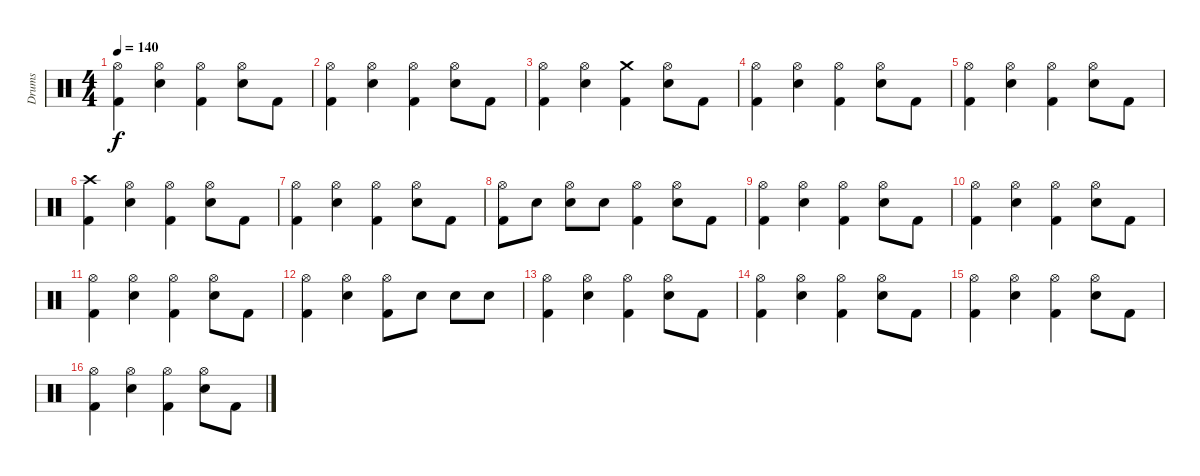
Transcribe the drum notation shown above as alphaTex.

\track ("Drums" "Drums") {instrument percussion}
\staff {score}
\articulation defaults
\ts (4 4)
\tempo 140
\clef neutral
\ks c
("Hi-Hat (open)" "Kick (hit) 2").4{dy f} ("Hi-Hat (open)" "Electric Snare (hit)").4 ("Hi-Hat (open)" "Kick (hit) 2").4 ("Hi-Hat (open)" "Electric Snare (hit)").8 "Kick (hit) 2".8 |
("Hi-Hat (open)" "Kick (hit) 2").4 ("Hi-Hat (open)" "Electric Snare (hit)").4 ("Hi-Hat (open)" "Kick (hit) 2").4 ("Hi-Hat (open)" "Electric Snare (hit)").8 "Kick (hit) 2".8 |
("Hi-Hat (open)" "Kick (hit) 2").4 ("Hi-Hat (open)" "Electric Snare (hit)").4 ("Crash medium (hit)" "Kick (hit) 2").4 ("Hi-Hat (open)" "Electric Snare (hit)").8 "Kick (hit) 2".8 |
("Hi-Hat (open)" "Kick (hit) 2").4 ("Hi-Hat (open)" "Electric Snare (hit)").4 ("Hi-Hat (open)" "Kick (hit) 2").4 ("Hi-Hat (open)" "Electric Snare (hit)").8 "Kick (hit) 2".8 |
("Hi-Hat (open)" "Kick (hit) 2").4 ("Hi-Hat (open)" "Electric Snare (hit)").4 ("Hi-Hat (open)" "Kick (hit) 2").4 ("Hi-Hat (open)" "Electric Snare (hit)").8 "Kick (hit) 2".8 |
("Crash high (hit)" "Kick (hit) 2").4 ("Hi-Hat (open)" "Electric Snare (hit)").4 ("Hi-Hat (open)" "Kick (hit) 2").4 ("Hi-Hat (open)" "Electric Snare (hit)").8 "Kick (hit) 2".8 |
("Hi-Hat (open)" "Kick (hit) 2").4 ("Hi-Hat (open)" "Electric Snare (hit)").4 ("Hi-Hat (open)" "Kick (hit) 2").4 ("Hi-Hat (open)" "Electric Snare (hit)").8 "Kick (hit) 2".8 |
("Hi-Hat (open)" "Kick (hit) 2").8 "Electric Snare (hit)".8 ("Hi-Hat (open)" "Electric Snare (hit)").8 "Electric Snare (hit)".8 ("Hi-Hat (open)" "Kick (hit) 2").4 ("Hi-Hat (open)" "Electric Snare (hit)").8 "Kick (hit) 2".8 |
("Hi-Hat (open)" "Kick (hit) 2").4 ("Hi-Hat (open)" "Electric Snare (hit)").4 ("Hi-Hat (open)" "Kick (hit) 2").4 ("Hi-Hat (open)" "Electric Snare (hit)").8 "Kick (hit) 2".8 |
("Hi-Hat (open)" "Kick (hit) 2").4 ("Hi-Hat (open)" "Electric Snare (hit)").4 ("Hi-Hat (open)" "Kick (hit) 2").4 ("Hi-Hat (open)" "Electric Snare (hit)").8 "Kick (hit) 2".8 |
("Hi-Hat (open)" "Kick (hit) 2").4 ("Hi-Hat (open)" "Electric Snare (hit)").4 ("Hi-Hat (open)" "Kick (hit) 2").4 ("Hi-Hat (open)" "Electric Snare (hit)").8 "Kick (hit) 2".8 |
("Hi-Hat (open)" "Kick (hit) 2").4 ("Hi-Hat (open)" "Electric Snare (hit)").4 ("Hi-Hat (open)" "Kick (hit) 2").8 "Electric Snare (hit)".8 "Electric Snare (hit)".8 "Electric Snare (hit)".8 |
("Hi-Hat (open)" "Kick (hit) 2").4 ("Hi-Hat (open)" "Electric Snare (hit)").4 ("Hi-Hat (open)" "Kick (hit) 2").4 ("Hi-Hat (open)" "Electric Snare (hit)").8 "Kick (hit) 2".8 |
("Hi-Hat (open)" "Kick (hit) 2").4 ("Hi-Hat (open)" "Electric Snare (hit)").4 ("Hi-Hat (open)" "Kick (hit) 2").4 ("Hi-Hat (open)" "Electric Snare (hit)").8 "Kick (hit) 2".8 |
("Hi-Hat (open)" "Kick (hit) 2").4 ("Hi-Hat (open)" "Electric Snare (hit)").4 ("Hi-Hat (open)" "Kick (hit) 2").4 ("Hi-Hat (open)" "Electric Snare (hit)").8 "Kick (hit) 2".8 |
("Hi-Hat (open)" "Kick (hit) 2").4 ("Hi-Hat (open)" "Electric Snare (hit)").4 ("Hi-Hat (open)" "Kick (hit) 2").4 ("Hi-Hat (open)" "Electric Snare (hit)").8 "Kick (hit) 2".8
